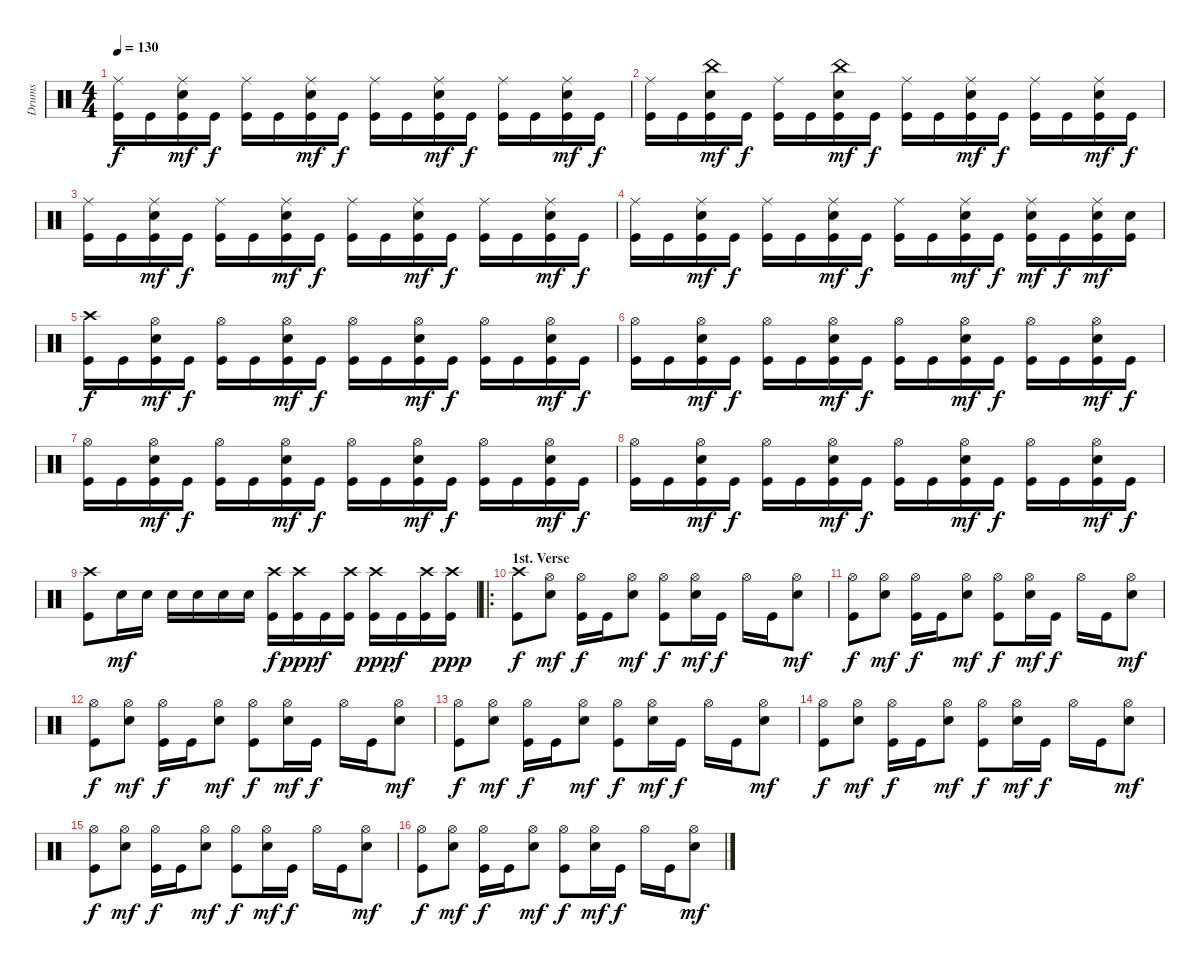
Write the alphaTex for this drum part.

\track ("Drums" "Drums") {instrument percussion}
\staff {score}
\articulation defaults
\ts (4 4)
\tempo 130
\clef neutral
\ks c
("Ride (middle)" "Kick (hit)").16{dy f} "Kick (hit)".16 ("Ride (middle)" "Snare (hit) 2" "Kick (hit)").16{dy mf} "Kick (hit)".16{dy f} ("Ride (middle)" "Kick (hit)").16 "Kick (hit)".16 ("Ride (middle)" "Snare (hit) 2" "Kick (hit)").16{dy mf} "Kick (hit)".16{dy f} ("Ride (middle)" "Kick (hit)").16 "Kick (hit)".16 ("Ride (middle)" "Snare (hit) 2" "Kick (hit)").16{dy mf} "Kick (hit)".16{dy f} ("Ride (middle)" "Kick (hit)").16 "Kick (hit)".16 ("Ride (middle)" "Snare (hit) 2" "Kick (hit)").16{dy mf} "Kick (hit)".16{dy f} |
("Ride (middle)" "Kick (hit)").16 "Kick (hit)".16 ("China (hit)" "Snare (hit) 2" "Kick (hit)").16{dy mf} "Kick (hit)".16{dy f} ("Ride (middle)" "Kick (hit)").16 "Kick (hit)".16 ("China (hit)" "Snare (hit) 2" "Kick (hit)").16{dy mf} "Kick (hit)".16{dy f} ("Ride (middle)" "Kick (hit)").16 "Kick (hit)".16 ("Ride (middle)" "Snare (hit) 2" "Kick (hit)").16{dy mf} "Kick (hit)".16{dy f} ("Ride (middle)" "Kick (hit)").16 "Kick (hit)".16 ("Ride (middle)" "Snare (hit) 2" "Kick (hit)").16{dy mf} "Kick (hit)".16{dy f} |
("Ride (middle)" "Kick (hit)").16 "Kick (hit)".16 ("Ride (middle)" "Snare (hit) 2" "Kick (hit)").16{dy mf} "Kick (hit)".16{dy f} ("Ride (middle)" "Kick (hit)").16 "Kick (hit)".16 ("Ride (middle)" "Snare (hit) 2" "Kick (hit)").16{dy mf} "Kick (hit)".16{dy f} ("Ride (middle)" "Kick (hit)").16 "Kick (hit)".16 ("Ride (middle)" "Snare (hit) 2" "Kick (hit)").16{dy mf} "Kick (hit)".16{dy f} ("Ride (middle)" "Kick (hit)").16 "Kick (hit)".16 ("Ride (middle)" "Snare (hit) 2" "Kick (hit)").16{dy mf} "Kick (hit)".16{dy f} |
("Ride (middle)" "Kick (hit)").16 "Kick (hit)".16 ("Ride (middle)" "Snare (hit) 2" "Kick (hit)").16{dy mf} "Kick (hit)".16{dy f} ("Ride (middle)" "Kick (hit)").16 "Kick (hit)".16 ("Ride (middle)" "Snare (hit) 2" "Kick (hit)").16{dy mf} "Kick (hit)".16{dy f} ("Ride (middle)" "Kick (hit)").16 "Kick (hit)".16 ("Ride (middle)" "Snare (hit) 2" "Kick (hit)").16{dy mf} "Kick (hit)".16{dy f} ("Ride (middle)" "Snare (hit) 2" "Kick (hit)").16{dy mf} "Kick (hit)".16{dy f} ("Ride (middle)" "Snare (hit) 2" "Kick (hit)").16{dy mf} ("Snare (hit) 2" "Kick (hit)").16 |
("Crash high (hit)" "Kick (hit)").16{dy f} "Kick (hit)".16 ("Hi-Hat (open)" "Snare (hit) 2" "Kick (hit)").16{dy mf} "Kick (hit)".16{dy f} ("Hi-Hat (open)" "Kick (hit)").16 "Kick (hit)".16 ("Hi-Hat (open)" "Snare (hit) 2" "Kick (hit)").16{dy mf} "Kick (hit)".16{dy f} ("Hi-Hat (open)" "Kick (hit)").16 "Kick (hit)".16 ("Hi-Hat (open)" "Snare (hit) 2" "Kick (hit)").16{dy mf} "Kick (hit)".16{dy f} ("Hi-Hat (open)" "Kick (hit)").16 "Kick (hit)".16 ("Hi-Hat (open)" "Snare (hit) 2" "Kick (hit)").16{dy mf} "Kick (hit)".16{dy f} |
("Hi-Hat (open)" "Kick (hit)").16 "Kick (hit)".16 ("Hi-Hat (open)" "Snare (hit) 2" "Kick (hit)").16{dy mf} "Kick (hit)".16{dy f} ("Hi-Hat (open)" "Kick (hit)").16 "Kick (hit)".16 ("Hi-Hat (open)" "Snare (hit) 2" "Kick (hit)").16{dy mf} "Kick (hit)".16{dy f} ("Hi-Hat (open)" "Kick (hit)").16 "Kick (hit)".16 ("Hi-Hat (open)" "Snare (hit) 2" "Kick (hit)").16{dy mf} "Kick (hit)".16{dy f} ("Hi-Hat (open)" "Kick (hit)").16 "Kick (hit)".16 ("Hi-Hat (open)" "Snare (hit) 2" "Kick (hit)").16{dy mf} "Kick (hit)".16{dy f} |
("Hi-Hat (open)" "Kick (hit)").16 "Kick (hit)".16 ("Hi-Hat (open)" "Snare (hit) 2" "Kick (hit)").16{dy mf} "Kick (hit)".16{dy f} ("Hi-Hat (open)" "Kick (hit)").16 "Kick (hit)".16 ("Hi-Hat (open)" "Snare (hit) 2" "Kick (hit)").16{dy mf} "Kick (hit)".16{dy f} ("Hi-Hat (open)" "Kick (hit)").16 "Kick (hit)".16 ("Hi-Hat (open)" "Snare (hit) 2" "Kick (hit)").16{dy mf} "Kick (hit)".16{dy f} ("Hi-Hat (open)" "Kick (hit)").16 "Kick (hit)".16 ("Hi-Hat (open)" "Snare (hit) 2" "Kick (hit)").16{dy mf} "Kick (hit)".16{dy f} |
("Hi-Hat (open)" "Kick (hit)").16 "Kick (hit)".16 ("Hi-Hat (open)" "Snare (hit) 2" "Kick (hit)").16{dy mf} "Kick (hit)".16{dy f} ("Hi-Hat (open)" "Kick (hit)").16 "Kick (hit)".16 ("Hi-Hat (open)" "Snare (hit) 2" "Kick (hit)").16{dy mf} "Kick (hit)".16{dy f} ("Hi-Hat (open)" "Kick (hit)").16 "Kick (hit)".16 ("Hi-Hat (open)" "Snare (hit) 2" "Kick (hit)").16{dy mf} "Kick (hit)".16{dy f} ("Hi-Hat (open)" "Kick (hit)").16 "Kick (hit)".16 ("Hi-Hat (open)" "Snare (hit) 2" "Kick (hit)").16{dy mf} "Kick (hit)".16{dy f} |
("Crash high (hit)" "Kick (hit)").8 "Snare (hit) 2".16{dy mf} "Snare (hit) 2".16 "Snare (hit) 2".16 "Snare (hit) 2".16 "Snare (hit) 2".16 "Snare (hit) 2".16 ("Crash high (hit)" "Kick (hit)").16{dy f} ("Crash high (hit)" "Kick (hit)").16{dy ppp} "Kick (hit)".16{dy f} ("Crash high (hit)" "Kick (hit)").16 ("Crash high (hit)" "Kick (hit)").16{dy ppp} "Kick (hit)".16{dy f} ("Crash high (hit)" "Kick (hit)").16 ("Crash high (hit)" "Kick (hit)").16{dy ppp} |
\ro
\section ("" "1st. Verse")
("Crash high (hit)" "Kick (hit)").8{dy f} ("Hi-Hat (open)" "Snare (hit) 2").8{dy mf} ("Hi-Hat (open)" "Kick (hit)").16{dy f} "Kick (hit)".16 ("Hi-Hat (open)" "Snare (hit) 2").8{dy mf} ("Hi-Hat (open)" "Kick (hit)").8{dy f} ("Hi-Hat (open)" "Snare (hit) 2").16{dy mf} "Kick (hit)".16{dy f} "Hi-Hat (open)".16 "Kick (hit)".16 ("Hi-Hat (open)" "Snare (hit) 2").8{dy mf} |
("Hi-Hat (open)" "Kick (hit)").8{dy f} ("Hi-Hat (open)" "Snare (hit) 2").8{dy mf} ("Hi-Hat (open)" "Kick (hit)").16{dy f} "Kick (hit)".16 ("Hi-Hat (open)" "Snare (hit) 2").8{dy mf} ("Hi-Hat (open)" "Kick (hit)").8{dy f} ("Hi-Hat (open)" "Snare (hit) 2").16{dy mf} "Kick (hit)".16{dy f} "Hi-Hat (open)".16 "Kick (hit)".16 ("Hi-Hat (open)" "Snare (hit) 2").8{dy mf} |
("Hi-Hat (open)" "Kick (hit)").8{dy f} ("Hi-Hat (open)" "Snare (hit) 2").8{dy mf} ("Hi-Hat (open)" "Kick (hit)").16{dy f} "Kick (hit)".16 ("Hi-Hat (open)" "Snare (hit) 2").8{dy mf} ("Hi-Hat (open)" "Kick (hit)").8{dy f} ("Hi-Hat (open)" "Snare (hit) 2").16{dy mf} "Kick (hit)".16{dy f} "Hi-Hat (open)".16 "Kick (hit)".16 ("Hi-Hat (open)" "Snare (hit) 2").8{dy mf} |
("Hi-Hat (open)" "Kick (hit)").8{dy f} ("Hi-Hat (open)" "Snare (hit) 2").8{dy mf} ("Hi-Hat (open)" "Kick (hit)").16{dy f} "Kick (hit)".16 ("Hi-Hat (open)" "Snare (hit) 2").8{dy mf} ("Hi-Hat (open)" "Kick (hit)").8{dy f} ("Hi-Hat (open)" "Snare (hit) 2").16{dy mf} "Kick (hit)".16{dy f} "Hi-Hat (open)".16 "Kick (hit)".16 ("Hi-Hat (open)" "Snare (hit) 2").8{dy mf} |
("Hi-Hat (open)" "Kick (hit)").8{dy f} ("Hi-Hat (open)" "Snare (hit) 2").8{dy mf} ("Hi-Hat (open)" "Kick (hit)").16{dy f} "Kick (hit)".16 ("Hi-Hat (open)" "Snare (hit) 2").8{dy mf} ("Hi-Hat (open)" "Kick (hit)").8{dy f} ("Hi-Hat (open)" "Snare (hit) 2").16{dy mf} "Kick (hit)".16{dy f} "Hi-Hat (open)".16 "Kick (hit)".16 ("Hi-Hat (open)" "Snare (hit) 2").8{dy mf} |
("Hi-Hat (open)" "Kick (hit)").8{dy f} ("Hi-Hat (open)" "Snare (hit) 2").8{dy mf} ("Hi-Hat (open)" "Kick (hit)").16{dy f} "Kick (hit)".16 ("Hi-Hat (open)" "Snare (hit) 2").8{dy mf} ("Hi-Hat (open)" "Kick (hit)").8{dy f} ("Hi-Hat (open)" "Snare (hit) 2").16{dy mf} "Kick (hit)".16{dy f} "Hi-Hat (open)".16 "Kick (hit)".16 ("Hi-Hat (open)" "Snare (hit) 2").8{dy mf} |
("Hi-Hat (open)" "Kick (hit)").8{dy f} ("Hi-Hat (open)" "Snare (hit) 2").8{dy mf} ("Hi-Hat (open)" "Kick (hit)").16{dy f} "Kick (hit)".16 ("Hi-Hat (open)" "Snare (hit) 2").8{dy mf} ("Hi-Hat (open)" "Kick (hit)").8{dy f} ("Hi-Hat (open)" "Snare (hit) 2").16{dy mf} "Kick (hit)".16{dy f} "Hi-Hat (open)".16 "Kick (hit)".16 ("Hi-Hat (open)" "Snare (hit) 2").8{dy mf}
